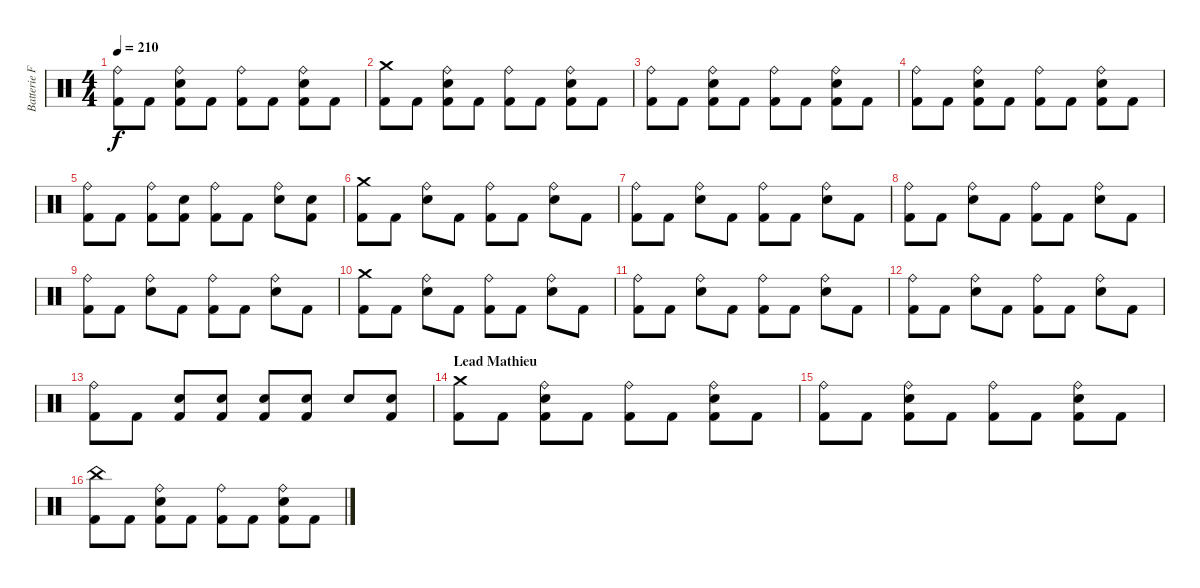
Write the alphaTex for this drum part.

\track ("Batterie Franck" "Batterie F") {instrument percussion}
\staff {score}
\articulation defaults
\ts (4 4)
\tempo 210
\clef neutral
\ks c
("Ride (bell)" "Kick (hit) 2").8{dy f} "Kick (hit) 2".8 ("Ride (bell)" "Snare (hit) 2" "Kick (hit) 2").8 "Kick (hit) 2".8 ("Ride (bell)" "Kick (hit) 2").8 "Kick (hit) 2".8 ("Ride (bell)" "Snare (hit) 2" "Kick (hit) 2").8 "Kick (hit) 2".8 |
("Crash medium (hit)" "Kick (hit) 2").8 "Kick (hit) 2".8 ("Ride (bell)" "Snare (hit) 2" "Kick (hit) 2").8 "Kick (hit) 2".8 ("Ride (bell)" "Kick (hit) 2").8 "Kick (hit) 2".8 ("Ride (bell)" "Snare (hit) 2" "Kick (hit) 2").8 "Kick (hit) 2".8 |
("Ride (bell)" "Kick (hit) 2").8 "Kick (hit) 2".8 ("Ride (bell)" "Snare (hit) 2" "Kick (hit) 2").8 "Kick (hit) 2".8 ("Ride (bell)" "Kick (hit) 2").8 "Kick (hit) 2".8 ("Ride (bell)" "Snare (hit) 2" "Kick (hit) 2").8 "Kick (hit) 2".8 |
("Ride (bell)" "Kick (hit) 2").8 "Kick (hit) 2".8 ("Ride (bell)" "Snare (hit) 2" "Kick (hit) 2").8 "Kick (hit) 2".8 ("Ride (bell)" "Kick (hit) 2").8 "Kick (hit) 2".8 ("Ride (bell)" "Snare (hit) 2" "Kick (hit) 2").8 "Kick (hit) 2".8 |
("Ride (bell)" "Kick (hit) 2").8 "Kick (hit) 2".8 ("Ride (bell)" "Kick (hit) 2").8 ("Snare (hit) 2" "Kick (hit) 2").8 ("Ride (bell)" "Kick (hit) 2").8 "Kick (hit) 2".8 ("Ride (bell)" "Snare (hit) 2").8 ("Snare (hit) 2" "Kick (hit) 2").8 |
("Crash medium (hit)" "Kick (hit) 2").8 "Kick (hit) 2".8 ("Ride (bell)" "Snare (hit) 2").8 "Kick (hit) 2".8 ("Ride (bell)" "Kick (hit) 2").8 "Kick (hit) 2".8 ("Ride (bell)" "Snare (hit) 2").8 "Kick (hit) 2".8 |
("Ride (bell)" "Kick (hit) 2").8 "Kick (hit) 2".8 ("Ride (bell)" "Snare (hit) 2").8 "Kick (hit) 2".8 ("Ride (bell)" "Kick (hit) 2").8 "Kick (hit) 2".8 ("Ride (bell)" "Snare (hit) 2").8 "Kick (hit) 2".8 |
("Ride (bell)" "Kick (hit) 2").8 "Kick (hit) 2".8 ("Ride (bell)" "Snare (hit) 2").8 "Kick (hit) 2".8 ("Ride (bell)" "Kick (hit) 2").8 "Kick (hit) 2".8 ("Ride (bell)" "Snare (hit) 2").8 "Kick (hit) 2".8 |
("Ride (bell)" "Kick (hit) 2").8 "Kick (hit) 2".8 ("Ride (bell)" "Snare (hit) 2").8 "Kick (hit) 2".8 ("Ride (bell)" "Kick (hit) 2").8 "Kick (hit) 2".8 ("Ride (bell)" "Snare (hit) 2").8 "Kick (hit) 2".8 |
("Crash medium (hit)" "Kick (hit) 2").8 "Kick (hit) 2".8 ("Ride (bell)" "Snare (hit) 2").8 "Kick (hit) 2".8 ("Ride (bell)" "Kick (hit) 2").8 "Kick (hit) 2".8 ("Ride (bell)" "Snare (hit) 2").8 "Kick (hit) 2".8 |
("Ride (bell)" "Kick (hit) 2").8 "Kick (hit) 2".8 ("Ride (bell)" "Snare (hit) 2").8 "Kick (hit) 2".8 ("Ride (bell)" "Kick (hit) 2").8 "Kick (hit) 2".8 ("Ride (bell)" "Snare (hit) 2").8 "Kick (hit) 2".8 |
("Ride (bell)" "Kick (hit) 2").8 "Kick (hit) 2".8 ("Ride (bell)" "Snare (hit) 2").8 "Kick (hit) 2".8 ("Ride (bell)" "Kick (hit) 2").8 "Kick (hit) 2".8 ("Ride (bell)" "Snare (hit) 2").8 "Kick (hit) 2".8 |
("Ride (bell)" "Kick (hit) 2").8 "Kick (hit) 2".8 ("Snare (hit) 2" "Kick (hit) 2").8 ("Snare (hit) 2" "Kick (hit) 2").8 ("Snare (hit) 2" "Kick (hit) 2").8 ("Snare (hit) 2" "Kick (hit) 2").8 "Snare (hit) 2".8 ("Snare (hit) 2" "Kick (hit) 2").8 |
\section ("" "Lead Mathieu")
("Crash medium (hit)" "Kick (hit) 2").8 "Kick (hit) 2".8 ("Ride (bell)" "Snare (hit) 2" "Kick (hit) 2").8 "Kick (hit) 2".8 ("Ride (bell)" "Kick (hit) 2").8 "Kick (hit) 2".8 ("Ride (bell)" "Snare (hit) 2" "Kick (hit) 2").8 "Kick (hit) 2".8 |
("Ride (bell)" "Kick (hit) 2").8 "Kick (hit) 2".8 ("Ride (bell)" "Snare (hit) 2" "Kick (hit) 2").8 "Kick (hit) 2".8 ("Ride (bell)" "Kick (hit) 2").8 "Kick (hit) 2".8 ("Ride (bell)" "Snare (hit) 2" "Kick (hit) 2").8 "Kick (hit) 2".8 |
("China (hit)" "Kick (hit) 2").8 "Kick (hit) 2".8 ("Ride (bell)" "Snare (hit) 2" "Kick (hit) 2").8 "Kick (hit) 2".8 ("Ride (bell)" "Kick (hit) 2").8 "Kick (hit) 2".8 ("Ride (bell)" "Snare (hit) 2" "Kick (hit) 2").8 "Kick (hit) 2".8
